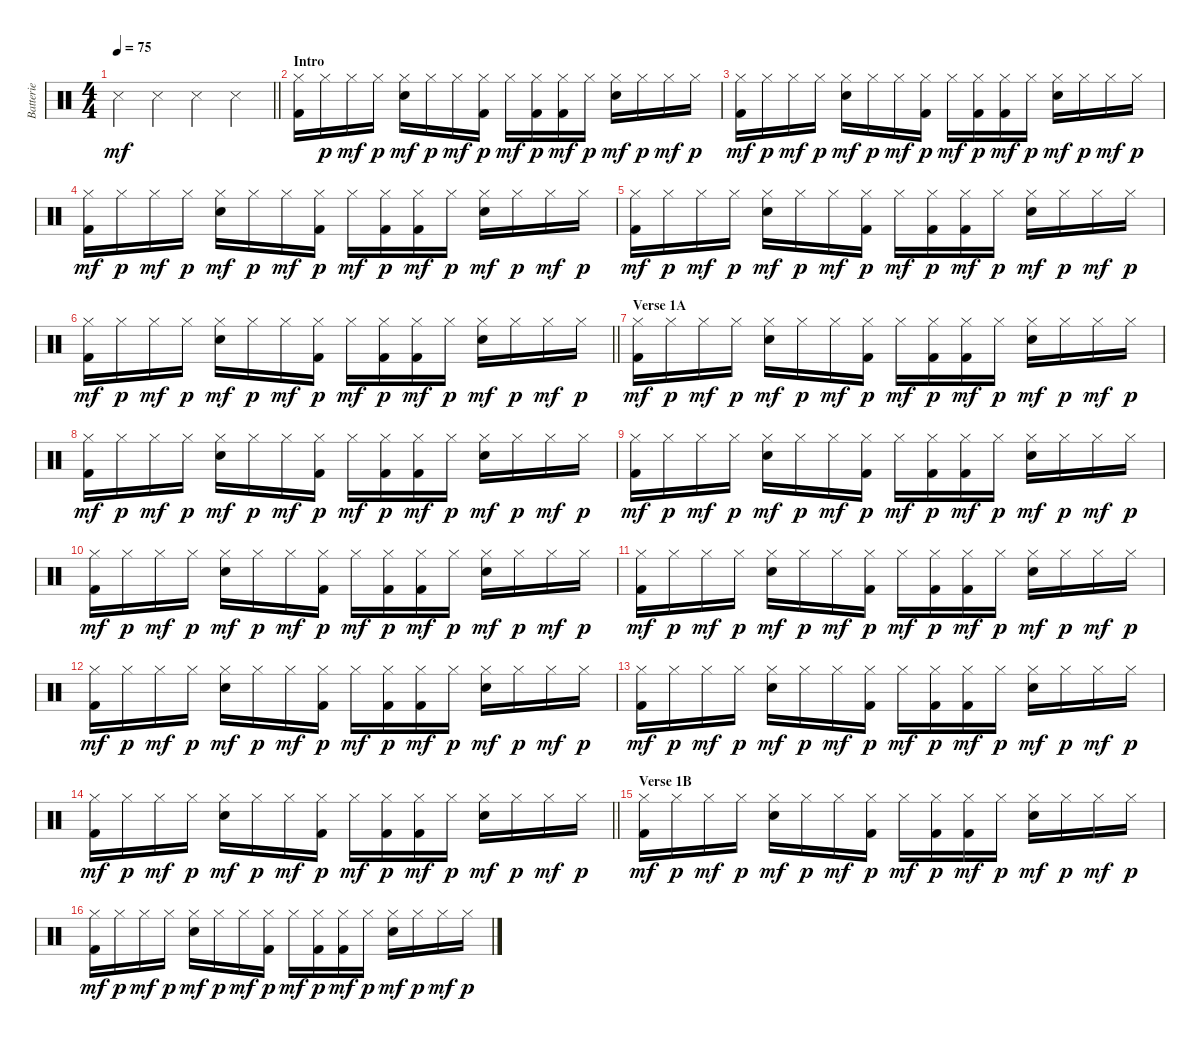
\track ("Batterie" "Batterie") {instrument percussion}
\staff {score}
\articulation defaults
\ts (4 4)
\tempo 75
\clef neutral
\barLineRight lightlight
\ks c "Metronome (hit)".4{dy mf} "Metronome (hit)".4 "Metronome (hit)".4 "Metronome (hit)".4
|
\section ("" "Intro")
("Hi-Hat (closed)" "Kick (hit) 2").16 "Hi-Hat (closed)".16{dy p} "Hi-Hat (closed)".16{dy mf} "Hi-Hat (closed)".16{dy p} ("Hi-Hat (closed)" "Electric Snare (hit)").16{dy mf} "Hi-Hat (closed)".16{dy p} "Hi-Hat (closed)".16{dy mf} ("Hi-Hat (closed)" "Kick (hit) 2").16{dy p} "Hi-Hat (closed)".16{dy mf} ("Hi-Hat (closed)" "Kick (hit) 2").16{dy p} ("Hi-Hat (closed)" "Kick (hit) 2").16{dy mf} "Hi-Hat (closed)".16{dy p} ("Hi-Hat (closed)" "Electric Snare (hit)").16{dy mf} "Hi-Hat (closed)".16{dy p} "Hi-Hat (closed)".16{dy mf} "Hi-Hat (closed)".16{dy p} |
("Hi-Hat (closed)" "Kick (hit) 2").16{dy mf} "Hi-Hat (closed)".16{dy p} "Hi-Hat (closed)".16{dy mf} "Hi-Hat (closed)".16{dy p} ("Hi-Hat (closed)" "Electric Snare (hit)").16{dy mf} "Hi-Hat (closed)".16{dy p} "Hi-Hat (closed)".16{dy mf} ("Hi-Hat (closed)" "Kick (hit) 2").16{dy p} "Hi-Hat (closed)".16{dy mf} ("Hi-Hat (closed)" "Kick (hit) 2").16{dy p} ("Hi-Hat (closed)" "Kick (hit) 2").16{dy mf} "Hi-Hat (closed)".16{dy p} ("Hi-Hat (closed)" "Electric Snare (hit)").16{dy mf} "Hi-Hat (closed)".16{dy p} "Hi-Hat (closed)".16{dy mf} "Hi-Hat (closed)".16{dy p} |
("Hi-Hat (closed)" "Kick (hit) 2").16{dy mf} "Hi-Hat (closed)".16{dy p} "Hi-Hat (closed)".16{dy mf} "Hi-Hat (closed)".16{dy p} ("Hi-Hat (closed)" "Electric Snare (hit)").16{dy mf} "Hi-Hat (closed)".16{dy p} "Hi-Hat (closed)".16{dy mf} ("Hi-Hat (closed)" "Kick (hit) 2").16{dy p} "Hi-Hat (closed)".16{dy mf} ("Hi-Hat (closed)" "Kick (hit) 2").16{dy p} ("Hi-Hat (closed)" "Kick (hit) 2").16{dy mf} "Hi-Hat (closed)".16{dy p} ("Hi-Hat (closed)" "Electric Snare (hit)").16{dy mf} "Hi-Hat (closed)".16{dy p} "Hi-Hat (closed)".16{dy mf} "Hi-Hat (closed)".16{dy p} |
("Hi-Hat (closed)" "Kick (hit) 2").16{dy mf} "Hi-Hat (closed)".16{dy p} "Hi-Hat (closed)".16{dy mf} "Hi-Hat (closed)".16{dy p} ("Hi-Hat (closed)" "Electric Snare (hit)").16{dy mf} "Hi-Hat (closed)".16{dy p} "Hi-Hat (closed)".16{dy mf} ("Hi-Hat (closed)" "Kick (hit) 2").16{dy p} "Hi-Hat (closed)".16{dy mf} ("Hi-Hat (closed)" "Kick (hit) 2").16{dy p} ("Hi-Hat (closed)" "Kick (hit) 2").16{dy mf} "Hi-Hat (closed)".16{dy p} ("Hi-Hat (closed)" "Electric Snare (hit)").16{dy mf} "Hi-Hat (closed)".16{dy p} "Hi-Hat (closed)".16{dy mf} "Hi-Hat (closed)".16{dy p} |
\barLineRight lightlight
("Hi-Hat (closed)" "Kick (hit) 2").16{dy mf} "Hi-Hat (closed)".16{dy p} "Hi-Hat (closed)".16{dy mf} "Hi-Hat (closed)".16{dy p} ("Hi-Hat (closed)" "Electric Snare (hit)").16{dy mf} "Hi-Hat (closed)".16{dy p} "Hi-Hat (closed)".16{dy mf} ("Hi-Hat (closed)" "Kick (hit) 2").16{dy p} "Hi-Hat (closed)".16{dy mf} ("Hi-Hat (closed)" "Kick (hit) 2").16{dy p} ("Hi-Hat (closed)" "Kick (hit) 2").16{dy mf} "Hi-Hat (closed)".16{dy p} ("Hi-Hat (closed)" "Electric Snare (hit)").16{dy mf} "Hi-Hat (closed)".16{dy p} "Hi-Hat (closed)".16{dy mf} "Hi-Hat (closed)".16{dy p} |
\section ("" "Verse 1A")
("Hi-Hat (closed)" "Kick (hit) 2").16{dy mf} "Hi-Hat (closed)".16{dy p} "Hi-Hat (closed)".16{dy mf} "Hi-Hat (closed)".16{dy p} ("Hi-Hat (closed)" "Electric Snare (hit)").16{dy mf} "Hi-Hat (closed)".16{dy p} "Hi-Hat (closed)".16{dy mf} ("Hi-Hat (closed)" "Kick (hit) 2").16{dy p} "Hi-Hat (closed)".16{dy mf} ("Hi-Hat (closed)" "Kick (hit) 2").16{dy p} ("Hi-Hat (closed)" "Kick (hit) 2").16{dy mf} "Hi-Hat (closed)".16{dy p} ("Hi-Hat (closed)" "Electric Snare (hit)").16{dy mf} "Hi-Hat (closed)".16{dy p} "Hi-Hat (closed)".16{dy mf} "Hi-Hat (closed)".16{dy p} |
("Hi-Hat (closed)" "Kick (hit) 2").16{dy mf} "Hi-Hat (closed)".16{dy p} "Hi-Hat (closed)".16{dy mf} "Hi-Hat (closed)".16{dy p} ("Hi-Hat (closed)" "Electric Snare (hit)").16{dy mf} "Hi-Hat (closed)".16{dy p} "Hi-Hat (closed)".16{dy mf} ("Hi-Hat (closed)" "Kick (hit) 2").16{dy p} "Hi-Hat (closed)".16{dy mf} ("Hi-Hat (closed)" "Kick (hit) 2").16{dy p} ("Hi-Hat (closed)" "Kick (hit) 2").16{dy mf} "Hi-Hat (closed)".16{dy p} ("Hi-Hat (closed)" "Electric Snare (hit)").16{dy mf} "Hi-Hat (closed)".16{dy p} "Hi-Hat (closed)".16{dy mf} "Hi-Hat (closed)".16{dy p} |
("Hi-Hat (closed)" "Kick (hit) 2").16{dy mf} "Hi-Hat (closed)".16{dy p} "Hi-Hat (closed)".16{dy mf} "Hi-Hat (closed)".16{dy p} ("Hi-Hat (closed)" "Electric Snare (hit)").16{dy mf} "Hi-Hat (closed)".16{dy p} "Hi-Hat (closed)".16{dy mf} ("Hi-Hat (closed)" "Kick (hit) 2").16{dy p} "Hi-Hat (closed)".16{dy mf} ("Hi-Hat (closed)" "Kick (hit) 2").16{dy p} ("Hi-Hat (closed)" "Kick (hit) 2").16{dy mf} "Hi-Hat (closed)".16{dy p} ("Hi-Hat (closed)" "Electric Snare (hit)").16{dy mf} "Hi-Hat (closed)".16{dy p} "Hi-Hat (closed)".16{dy mf} "Hi-Hat (closed)".16{dy p} |
("Hi-Hat (closed)" "Kick (hit) 2").16{dy mf} "Hi-Hat (closed)".16{dy p} "Hi-Hat (closed)".16{dy mf} "Hi-Hat (closed)".16{dy p} ("Hi-Hat (closed)" "Electric Snare (hit)").16{dy mf} "Hi-Hat (closed)".16{dy p} "Hi-Hat (closed)".16{dy mf} ("Hi-Hat (closed)" "Kick (hit) 2").16{dy p} "Hi-Hat (closed)".16{dy mf} ("Hi-Hat (closed)" "Kick (hit) 2").16{dy p} ("Hi-Hat (closed)" "Kick (hit) 2").16{dy mf} "Hi-Hat (closed)".16{dy p} ("Hi-Hat (closed)" "Electric Snare (hit)").16{dy mf} "Hi-Hat (closed)".16{dy p} "Hi-Hat (closed)".16{dy mf} "Hi-Hat (closed)".16{dy p} |
("Hi-Hat (closed)" "Kick (hit) 2").16{dy mf} "Hi-Hat (closed)".16{dy p} "Hi-Hat (closed)".16{dy mf} "Hi-Hat (closed)".16{dy p} ("Hi-Hat (closed)" "Electric Snare (hit)").16{dy mf} "Hi-Hat (closed)".16{dy p} "Hi-Hat (closed)".16{dy mf} ("Hi-Hat (closed)" "Kick (hit) 2").16{dy p} "Hi-Hat (closed)".16{dy mf} ("Hi-Hat (closed)" "Kick (hit) 2").16{dy p} ("Hi-Hat (closed)" "Kick (hit) 2").16{dy mf} "Hi-Hat (closed)".16{dy p} ("Hi-Hat (closed)" "Electric Snare (hit)").16{dy mf} "Hi-Hat (closed)".16{dy p} "Hi-Hat (closed)".16{dy mf} "Hi-Hat (closed)".16{dy p} |
("Hi-Hat (closed)" "Kick (hit) 2").16{dy mf} "Hi-Hat (closed)".16{dy p} "Hi-Hat (closed)".16{dy mf} "Hi-Hat (closed)".16{dy p} ("Hi-Hat (closed)" "Electric Snare (hit)").16{dy mf} "Hi-Hat (closed)".16{dy p} "Hi-Hat (closed)".16{dy mf} ("Hi-Hat (closed)" "Kick (hit) 2").16{dy p} "Hi-Hat (closed)".16{dy mf} ("Hi-Hat (closed)" "Kick (hit) 2").16{dy p} ("Hi-Hat (closed)" "Kick (hit) 2").16{dy mf} "Hi-Hat (closed)".16{dy p} ("Hi-Hat (closed)" "Electric Snare (hit)").16{dy mf} "Hi-Hat (closed)".16{dy p} "Hi-Hat (closed)".16{dy mf} "Hi-Hat (closed)".16{dy p} |
("Hi-Hat (closed)" "Kick (hit) 2").16{dy mf} "Hi-Hat (closed)".16{dy p} "Hi-Hat (closed)".16{dy mf} "Hi-Hat (closed)".16{dy p} ("Hi-Hat (closed)" "Electric Snare (hit)").16{dy mf} "Hi-Hat (closed)".16{dy p} "Hi-Hat (closed)".16{dy mf} ("Hi-Hat (closed)" "Kick (hit) 2").16{dy p} "Hi-Hat (closed)".16{dy mf} ("Hi-Hat (closed)" "Kick (hit) 2").16{dy p} ("Hi-Hat (closed)" "Kick (hit) 2").16{dy mf} "Hi-Hat (closed)".16{dy p} ("Hi-Hat (closed)" "Electric Snare (hit)").16{dy mf} "Hi-Hat (closed)".16{dy p} "Hi-Hat (closed)".16{dy mf} "Hi-Hat (closed)".16{dy p} |
\barLineRight lightlight
("Hi-Hat (closed)" "Kick (hit) 2").16{dy mf} "Hi-Hat (closed)".16{dy p} "Hi-Hat (closed)".16{dy mf} "Hi-Hat (closed)".16{dy p} ("Hi-Hat (closed)" "Electric Snare (hit)").16{dy mf} "Hi-Hat (closed)".16{dy p} "Hi-Hat (closed)".16{dy mf} ("Hi-Hat (closed)" "Kick (hit) 2").16{dy p} "Hi-Hat (closed)".16{dy mf} ("Hi-Hat (closed)" "Kick (hit) 2").16{dy p} ("Hi-Hat (closed)" "Kick (hit) 2").16{dy mf} "Hi-Hat (closed)".16{dy p} ("Hi-Hat (closed)" "Electric Snare (hit)").16{dy mf} "Hi-Hat (closed)".16{dy p} "Hi-Hat (closed)".16{dy mf} "Hi-Hat (closed)".16{dy p} |
\section ("" "Verse 1B")
("Hi-Hat (closed)" "Kick (hit) 2").16{dy mf} "Hi-Hat (closed)".16{dy p} "Hi-Hat (closed)".16{dy mf} "Hi-Hat (closed)".16{dy p} ("Hi-Hat (closed)" "Electric Snare (hit)").16{dy mf} "Hi-Hat (closed)".16{dy p} "Hi-Hat (closed)".16{dy mf} ("Hi-Hat (closed)" "Kick (hit) 2").16{dy p} "Hi-Hat (closed)".16{dy mf} ("Hi-Hat (closed)" "Kick (hit) 2").16{dy p} ("Hi-Hat (closed)" "Kick (hit) 2").16{dy mf} "Hi-Hat (closed)".16{dy p} ("Hi-Hat (closed)" "Electric Snare (hit)").16{dy mf} "Hi-Hat (closed)".16{dy p} "Hi-Hat (closed)".16{dy mf} "Hi-Hat (closed)".16{dy p} |
("Hi-Hat (closed)" "Kick (hit) 2").16{dy mf} "Hi-Hat (closed)".16{dy p} "Hi-Hat (closed)".16{dy mf} "Hi-Hat (closed)".16{dy p} ("Hi-Hat (closed)" "Electric Snare (hit)").16{dy mf} "Hi-Hat (closed)".16{dy p} "Hi-Hat (closed)".16{dy mf} ("Hi-Hat (closed)" "Kick (hit) 2").16{dy p} "Hi-Hat (closed)".16{dy mf} ("Hi-Hat (closed)" "Kick (hit) 2").16{dy p} ("Hi-Hat (closed)" "Kick (hit) 2").16{dy mf} "Hi-Hat (closed)".16{dy p} ("Hi-Hat (closed)" "Electric Snare (hit)").16{dy mf} "Hi-Hat (closed)".16{dy p} "Hi-Hat (closed)".16{dy mf} "Hi-Hat (closed)".16{dy p}
